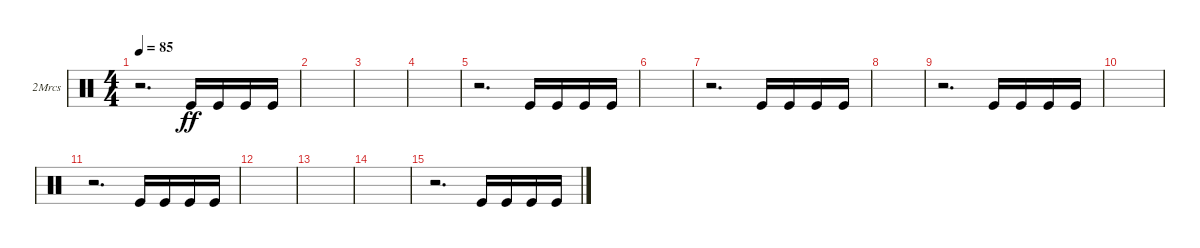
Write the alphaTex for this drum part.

\defaultSystemsLayout 4
\bracketExtendMode groupsimilarinstruments
\firstSystemTrackNameOrientation horizontal
\otherSystemsTrackNameOrientation horizontal
\track ("2 Hands Maracas" "2Mrcs") {instrument percussion}
\staff {score}
\articulation defaults
\ts (4 4)
\tempo 85
\clef neutral
\ks c
r.2{d dy ff} "Kick (hit)".16 "Kick (hit)".16 "Kick (hit)".16 "Kick (hit)".16 |
|
|
|
r.2{d} "Kick (hit)".16 "Kick (hit)".16 "Kick (hit)".16 "Kick (hit)".16 |
|
r.2{d} "Kick (hit)".16 "Kick (hit)".16 "Kick (hit)".16 "Kick (hit)".16 |
|
r.2{d} "Kick (hit)".16 "Kick (hit)".16 "Kick (hit)".16 "Kick (hit)".16 |
|
r.2{d} "Kick (hit)".16 "Kick (hit)".16 "Kick (hit)".16 "Kick (hit)".16 |
|
|
|
r.2{d} "Kick (hit)".16 "Kick (hit)".16 "Kick (hit)".16 "Kick (hit)".16
